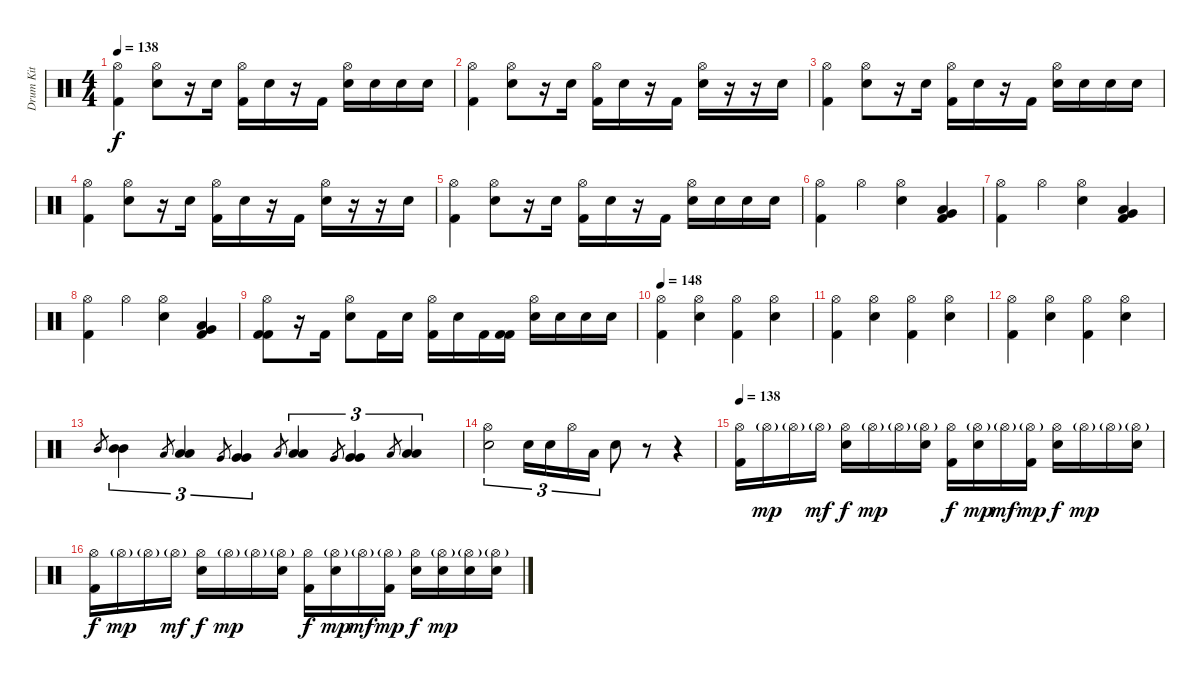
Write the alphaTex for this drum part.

\track ("Drum Kit" "Drum Kit") {instrument percussion}
\staff {score}
\articulation defaults
\ts (4 4)
\tempo 138
\clef neutral
\ks c
("Hi-Hat (open)" "Kick (hit) 2").4{dy f} ("Hi-Hat (open)" "Snare (hit) 2").8 r.16 "Snare (hit) 2".16 ("Hi-Hat (open)" "Kick (hit) 2").16 "Snare (hit) 2".16 r.16 "Kick (hit) 2".16 ("Hi-Hat (open)" "Snare (hit) 2").16 "Snare (hit) 2".16 "Snare (hit) 2".16 "Snare (hit) 2".16 |
("Hi-Hat (open)" "Kick (hit) 2").4 ("Hi-Hat (open)" "Snare (hit) 2").8 r.16 "Snare (hit) 2".16 ("Hi-Hat (open)" "Kick (hit) 2").16 "Snare (hit) 2".16 r.16 "Kick (hit) 2".16 ("Hi-Hat (open)" "Snare (hit) 2").16 r.16 r.16 "Snare (hit) 2".16 |
("Hi-Hat (open)" "Kick (hit) 2").4 ("Hi-Hat (open)" "Snare (hit) 2").8 r.16 "Snare (hit) 2".16 ("Hi-Hat (open)" "Kick (hit) 2").16 "Snare (hit) 2".16 r.16 "Kick (hit) 2".16 ("Hi-Hat (open)" "Snare (hit) 2").16 "Snare (hit) 2".16 "Snare (hit) 2".16 "Snare (hit) 2".16 |
("Hi-Hat (open)" "Kick (hit) 2").4 ("Hi-Hat (open)" "Snare (hit) 2").8 r.16 "Snare (hit) 2".16 ("Hi-Hat (open)" "Kick (hit) 2").16 "Snare (hit) 2".16 r.16 "Kick (hit) 2".16 ("Hi-Hat (open)" "Snare (hit) 2").16 r.16 r.16 "Snare (hit) 2".16 |
("Hi-Hat (open)" "Kick (hit) 2").4 ("Hi-Hat (open)" "Snare (hit) 2").8 r.16 "Snare (hit) 2".16 ("Hi-Hat (open)" "Kick (hit) 2").16 "Snare (hit) 2".16 r.16 "Kick (hit) 2".16 ("Hi-Hat (open)" "Snare (hit) 2").16 "Snare (hit) 2".16 "Snare (hit) 2".16 "Snare (hit) 2".16 |
("Hi-Hat (open)" "Kick (hit) 2").4 "Hi-Hat (open)".4 ("Hi-Hat (open)" "Snare (hit) 2").4 ("Very Low Tom (hit)" "Low Floor Tom (hit)" "Kick (hit) 2").4 |
("Hi-Hat (open)" "Kick (hit) 2").4 "Hi-Hat (open)".4 ("Hi-Hat (open)" "Snare (hit) 2").4 ("Very Low Tom (hit)" "Low Floor Tom (hit)" "Kick (hit) 2").4 |
("Hi-Hat (open)" "Kick (hit) 2").4 "Hi-Hat (open)".4 ("Hi-Hat (open)" "Snare (hit) 2").4 ("Very Low Tom (hit)" "Low Floor Tom (hit)" "Kick (hit) 2").4 |
("Hi-Hat (open)" "Kick (hit) 2" "Kick (hit) 2").8 r.16 "Kick (hit) 2".16 ("Hi-Hat (open)" "Snare (hit) 2").8 "Kick (hit) 2".16 "Snare (hit) 2".16 ("Hi-Hat (open)" "Kick (hit) 2").16 "Snare (hit) 2".16 "Kick (hit) 2".16 ("Kick (hit) 2" "Kick (hit) 2").16 ("Hi-Hat (open)" "Snare (hit) 2").16 "Snare (hit) 2".16 "Snare (hit) 2".16 "Snare (hit) 2".16 |
\tempo 148
("Hi-Hat (open)" "Kick (hit) 2").4 ("Hi-Hat (open)" "Snare (hit) 2").4 ("Hi-Hat (open)" "Kick (hit) 2").4 ("Hi-Hat (open)" "Snare (hit) 2").4 |
("Hi-Hat (open)" "Kick (hit) 2").4 ("Hi-Hat (open)" "Snare (hit) 2").4 ("Hi-Hat (open)" "Kick (hit) 2").4 ("Hi-Hat (open)" "Snare (hit) 2").4 |
("Hi-Hat (open)" "Kick (hit) 2").4 ("Hi-Hat (open)" "Snare (hit) 2").4 ("Hi-Hat (open)" "Kick (hit) 2").4 ("Hi-Hat (open)" "Snare (hit) 2").4 |
"Mid Tom (hit)".8{gr} ("Mid Tom (hit)" "Mid Tom (hit)").4{tu (3 2)} "Low Tom (hit)".8{gr} ("Low Tom (hit)" "Low Tom (hit)").4{tu (3 2)} "Very Low Tom (hit)".8{gr} ("Very Low Tom (hit)" "Very Low Tom (hit)").4{tu (3 2)} "Low Tom (hit)".8{gr} ("Low Tom (hit)" "Low Tom (hit)").4{tu (3 2)} "Very Low Tom (hit)".8{gr} ("Very Low Tom (hit)" "Very Low Tom (hit)").4{tu (3 2)} "Low Floor Tom (hit)".8{gr} ("Low Floor Tom (hit)" "Low Floor Tom (hit)").4{tu (3 2)} |
("Hi-Hat (open)" "Snare (hit) 2").2{tu (3 2)} "Electric Snare (hit)".16{tu (3 2)} "Electric Snare (hit)".16{tu (3 2)} "Hi-Hat (open)".16{tu (3 2)} "Low Tom (hit)".16{tu (3 2)} "Electric Snare (hit)".8 r.8 r.4 |
\tempo 138
("Hi-Hat (open)" "Kick (hit) 2").16 "Hi-Hat (open)"{g}.16{dy mp} "Hi-Hat (open)"{g}.16 "Hi-Hat (open)"{g}.16{dy mf} ("Hi-Hat (open)" "Snare (hit) 2").16{dy f} "Hi-Hat (open)"{g}.16{dy mp} "Hi-Hat (open)"{g}.16 ("Hi-Hat (open)"{g} "Snare (hit) 2").16 ("Hi-Hat (open)" "Kick (hit) 2").16{dy f} ("Hi-Hat (open)"{g} "Snare (hit) 2").16{dy mp} "Hi-Hat (open)"{g}.16{dy mf} ("Hi-Hat (open)"{g} "Kick (hit) 2").16{dy mp} ("Hi-Hat (open)" "Snare (hit) 2").16{dy f} "Hi-Hat (open)"{g}.16{dy mp} "Hi-Hat (open)"{g}.16 ("Hi-Hat (open)"{g} "Snare (hit) 2").16 |
("Hi-Hat (open)" "Kick (hit) 2").16{dy f} "Hi-Hat (open)"{g}.16{dy mp} "Hi-Hat (open)"{g}.16 "Hi-Hat (open)"{g}.16{dy mf} ("Hi-Hat (open)" "Snare (hit) 2").16{dy f} "Hi-Hat (open)"{g}.16{dy mp} "Hi-Hat (open)"{g}.16 ("Hi-Hat (open)"{g} "Snare (hit) 2").16 ("Hi-Hat (open)" "Kick (hit) 2").16{dy f} ("Hi-Hat (open)"{g} "Snare (hit) 2").16{dy mp} "Hi-Hat (open)"{g}.16{dy mf} ("Hi-Hat (open)"{g} "Kick (hit) 2").16{dy mp} ("Hi-Hat (open)" "Snare (hit) 2").16{dy f} ("Hi-Hat (open)"{g} "Snare (hit) 2").16{dy mp} ("Hi-Hat (open)"{g} "Snare (hit) 2").16 ("Hi-Hat (open)"{g} "Snare (hit) 2").16
